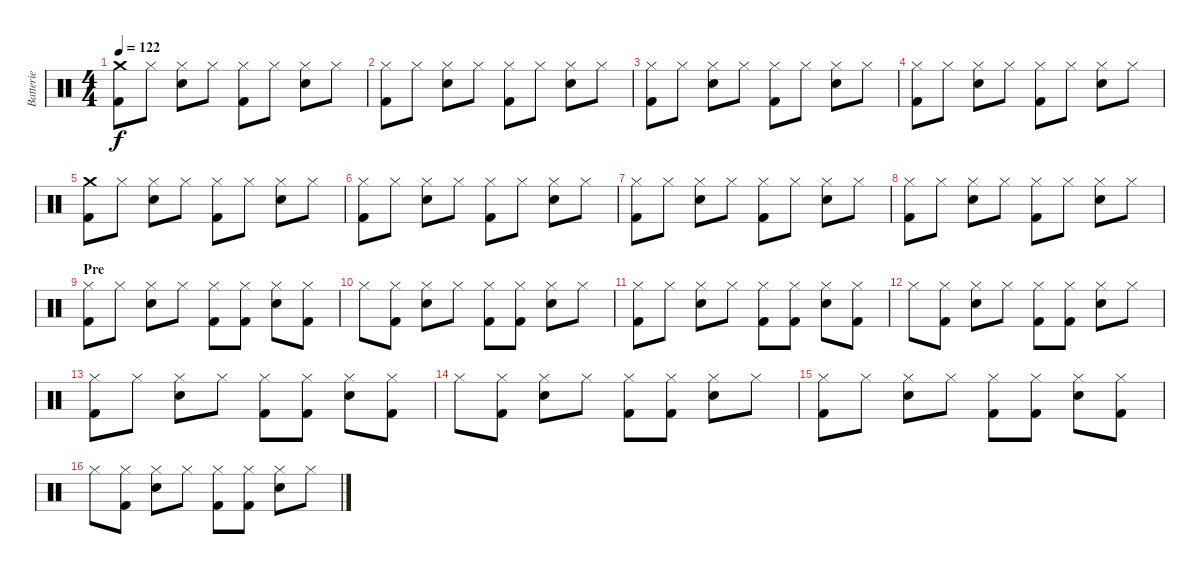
\track ("Batterie" "Batterie") {instrument percussion}
\staff {score}
\articulation defaults
\ts (4 4)
\tempo 122
\clef neutral
\ks c
("Crash medium (hit)" "Kick (hit) 2").8{dy f} "Hi-Hat (closed)".8 ("Hi-Hat (closed)" "Snare (hit) 2").8 "Hi-Hat (closed)".8 ("Hi-Hat (closed)" "Kick (hit) 2").8 "Hi-Hat (closed)".8 ("Hi-Hat (closed)" "Snare (hit) 2").8 "Hi-Hat (closed)".8 |
("Hi-Hat (closed)" "Kick (hit) 2").8 "Hi-Hat (closed)".8 ("Hi-Hat (closed)" "Snare (hit) 2").8 "Hi-Hat (closed)".8 ("Hi-Hat (closed)" "Kick (hit) 2").8 "Hi-Hat (closed)".8 ("Hi-Hat (closed)" "Snare (hit) 2").8 "Hi-Hat (closed)".8 |
("Hi-Hat (closed)" "Kick (hit) 2").8 "Hi-Hat (closed)".8 ("Hi-Hat (closed)" "Snare (hit) 2").8 "Hi-Hat (closed)".8 ("Hi-Hat (closed)" "Kick (hit) 2").8 "Hi-Hat (closed)".8 ("Hi-Hat (closed)" "Snare (hit) 2").8 "Hi-Hat (closed)".8 |
("Hi-Hat (closed)" "Kick (hit) 2").8 "Hi-Hat (closed)".8 ("Hi-Hat (closed)" "Snare (hit) 2").8 "Hi-Hat (closed)".8 ("Hi-Hat (closed)" "Kick (hit) 2").8 "Hi-Hat (closed)".8 ("Hi-Hat (closed)" "Snare (hit) 2").8 "Hi-Hat (closed)".8 |
("Crash medium (hit)" "Kick (hit) 2").8 "Hi-Hat (closed)".8 ("Hi-Hat (closed)" "Snare (hit) 2").8 "Hi-Hat (closed)".8 ("Hi-Hat (closed)" "Kick (hit) 2").8 "Hi-Hat (closed)".8 ("Hi-Hat (closed)" "Snare (hit) 2").8 "Hi-Hat (closed)".8 |
("Hi-Hat (closed)" "Kick (hit) 2").8 "Hi-Hat (closed)".8 ("Hi-Hat (closed)" "Snare (hit) 2").8 "Hi-Hat (closed)".8 ("Hi-Hat (closed)" "Kick (hit) 2").8 "Hi-Hat (closed)".8 ("Hi-Hat (closed)" "Snare (hit) 2").8 "Hi-Hat (closed)".8 |
("Hi-Hat (closed)" "Kick (hit) 2").8 "Hi-Hat (closed)".8 ("Hi-Hat (closed)" "Snare (hit) 2").8 "Hi-Hat (closed)".8 ("Hi-Hat (closed)" "Kick (hit) 2").8 "Hi-Hat (closed)".8 ("Hi-Hat (closed)" "Snare (hit) 2").8 "Hi-Hat (closed)".8 |
("Hi-Hat (closed)" "Kick (hit) 2").8 "Hi-Hat (closed)".8 ("Hi-Hat (closed)" "Snare (hit) 2").8 "Hi-Hat (closed)".8 ("Hi-Hat (closed)" "Kick (hit) 2").8 "Hi-Hat (closed)".8 ("Hi-Hat (closed)" "Snare (hit) 2").8 "Hi-Hat (closed)".8 |
\section ("" "Pre")
("Hi-Hat (closed)" "Kick (hit) 2").8 "Hi-Hat (closed)".8 ("Hi-Hat (closed)" "Snare (hit) 2").8 "Hi-Hat (closed)".8 ("Hi-Hat (closed)" "Kick (hit) 2").8 ("Hi-Hat (closed)" "Kick (hit) 2").8 ("Hi-Hat (closed)" "Snare (hit) 2").8 ("Hi-Hat (closed)" "Kick (hit) 2").8 |
"Hi-Hat (closed)".8 ("Hi-Hat (closed)" "Kick (hit) 2").8 ("Hi-Hat (closed)" "Snare (hit) 2").8 "Hi-Hat (closed)".8 ("Hi-Hat (closed)" "Kick (hit) 2").8 ("Hi-Hat (closed)" "Kick (hit) 2").8 ("Hi-Hat (closed)" "Snare (hit) 2").8 "Hi-Hat (closed)".8 |
("Hi-Hat (closed)" "Kick (hit) 2").8 "Hi-Hat (closed)".8 ("Hi-Hat (closed)" "Snare (hit) 2").8 "Hi-Hat (closed)".8 ("Hi-Hat (closed)" "Kick (hit) 2").8 ("Hi-Hat (closed)" "Kick (hit) 2").8 ("Hi-Hat (closed)" "Snare (hit) 2").8 ("Hi-Hat (closed)" "Kick (hit) 2").8 |
"Hi-Hat (closed)".8 ("Hi-Hat (closed)" "Kick (hit) 2").8 ("Hi-Hat (closed)" "Snare (hit) 2").8 "Hi-Hat (closed)".8 ("Hi-Hat (closed)" "Kick (hit) 2").8 ("Hi-Hat (closed)" "Kick (hit) 2").8 ("Hi-Hat (closed)" "Snare (hit) 2").8 "Hi-Hat (closed)".8 |
("Hi-Hat (closed)" "Kick (hit) 2").8 "Hi-Hat (closed)".8 ("Hi-Hat (closed)" "Snare (hit) 2").8 "Hi-Hat (closed)".8 ("Hi-Hat (closed)" "Kick (hit) 2").8 ("Hi-Hat (closed)" "Kick (hit) 2").8 ("Hi-Hat (closed)" "Snare (hit) 2").8 ("Hi-Hat (closed)" "Kick (hit) 2").8 |
"Hi-Hat (closed)".8 ("Hi-Hat (closed)" "Kick (hit) 2").8 ("Hi-Hat (closed)" "Snare (hit) 2").8 "Hi-Hat (closed)".8 ("Hi-Hat (closed)" "Kick (hit) 2").8 ("Hi-Hat (closed)" "Kick (hit) 2").8 ("Hi-Hat (closed)" "Snare (hit) 2").8 "Hi-Hat (closed)".8 |
("Hi-Hat (closed)" "Kick (hit) 2").8 "Hi-Hat (closed)".8 ("Hi-Hat (closed)" "Snare (hit) 2").8 "Hi-Hat (closed)".8 ("Hi-Hat (closed)" "Kick (hit) 2").8 ("Hi-Hat (closed)" "Kick (hit) 2").8 ("Hi-Hat (closed)" "Snare (hit) 2").8 ("Hi-Hat (closed)" "Kick (hit) 2").8 |
"Hi-Hat (closed)".8 ("Hi-Hat (closed)" "Kick (hit) 2").8 ("Hi-Hat (closed)" "Snare (hit) 2").8 "Hi-Hat (closed)".8 ("Hi-Hat (closed)" "Kick (hit) 2").8 ("Hi-Hat (closed)" "Kick (hit) 2").8 ("Hi-Hat (closed)" "Snare (hit) 2").8 "Hi-Hat (closed)".8
